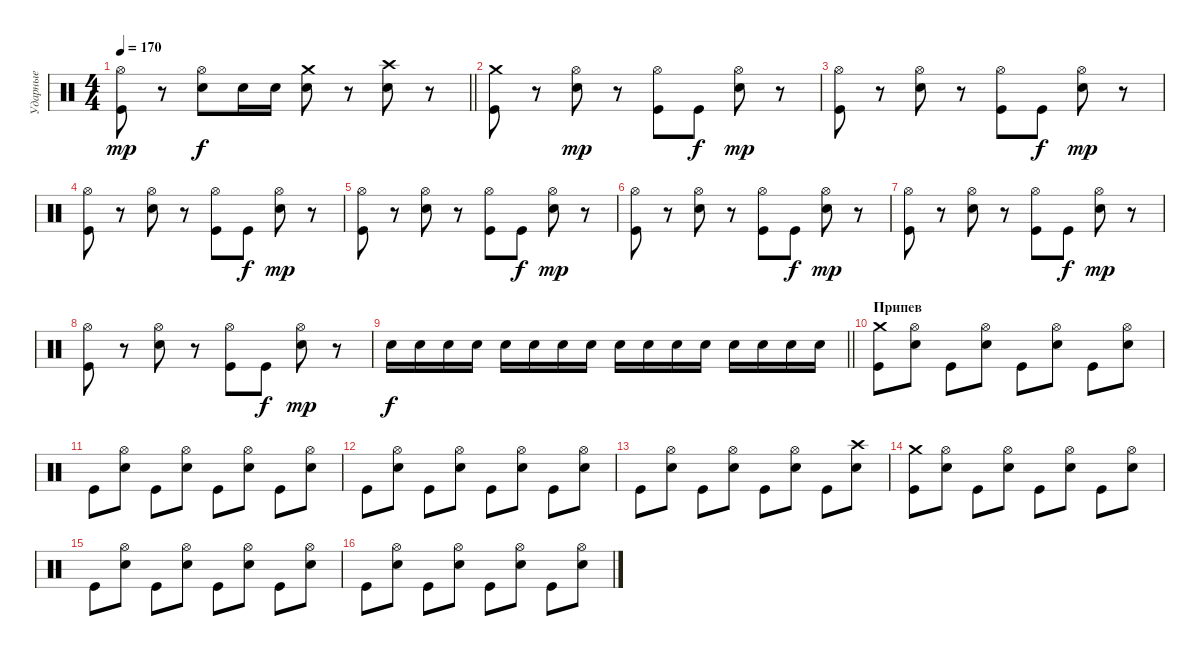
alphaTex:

\track ("Ударные" "Ударные") {instrument percussion}
\staff {score}
\articulation defaults
\ts (4 4)
\tempo 170
\clef neutral
\barLineRight lightlight
\ks c
("Hi-Hat (open)" "Kick (hit)").8{dy mp} r.8 ("Hi-Hat (open)" "Electric Snare (hit)").8{dy f} "Electric Snare (hit)".16 "Electric Snare (hit)".16 ("Crash medium (hit)" "Electric Snare (hit)").8 r.8 ("Crash high (hit)" "Electric Snare (hit)").8 r.8 |
\section ("" " ")
("Crash medium (hit)" "Kick (hit)").8 r.8 ("Hi-Hat (open)" "Electric Snare (hit)").8{dy mp} r.8 ("Hi-Hat (open)" "Kick (hit)").8 "Kick (hit)".8{dy f} ("Hi-Hat (open)" "Electric Snare (hit)").8{dy mp} r.8 |
("Hi-Hat (open)" "Kick (hit)").8 r.8 ("Hi-Hat (open)" "Electric Snare (hit)").8 r.8 ("Hi-Hat (open)" "Kick (hit)").8 "Kick (hit)".8{dy f} ("Hi-Hat (open)" "Electric Snare (hit)").8{dy mp} r.8 |
("Hi-Hat (open)" "Kick (hit)").8 r.8 ("Hi-Hat (open)" "Electric Snare (hit)").8 r.8 ("Hi-Hat (open)" "Kick (hit)").8 "Kick (hit)".8{dy f} ("Hi-Hat (open)" "Electric Snare (hit)").8{dy mp} r.8 |
("Hi-Hat (open)" "Kick (hit)").8 r.8 ("Hi-Hat (open)" "Electric Snare (hit)").8 r.8 ("Hi-Hat (open)" "Kick (hit)").8 "Kick (hit)".8{dy f} ("Hi-Hat (open)" "Electric Snare (hit)").8{dy mp} r.8 |
("Hi-Hat (open)" "Kick (hit)").8 r.8 ("Hi-Hat (open)" "Electric Snare (hit)").8 r.8 ("Hi-Hat (open)" "Kick (hit)").8 "Kick (hit)".8{dy f} ("Hi-Hat (open)" "Electric Snare (hit)").8{dy mp} r.8 |
("Hi-Hat (open)" "Kick (hit)").8 r.8 ("Hi-Hat (open)" "Electric Snare (hit)").8 r.8 ("Hi-Hat (open)" "Kick (hit)").8 "Kick (hit)".8{dy f} ("Hi-Hat (open)" "Electric Snare (hit)").8{dy mp} r.8 |
("Hi-Hat (open)" "Kick (hit)").8 r.8 ("Hi-Hat (open)" "Electric Snare (hit)").8 r.8 ("Hi-Hat (open)" "Kick (hit)").8 "Kick (hit)".8{dy f} ("Hi-Hat (open)" "Electric Snare (hit)").8{dy mp} r.8 |
\barLineRight lightlight "Electric Snare (hit)".16{dy f} "Electric Snare (hit)".16 "Electric Snare (hit)".16 "Electric Snare (hit)".16 "Electric Snare (hit)".16 "Electric Snare (hit)".16 "Electric Snare (hit)".16 "Electric Snare (hit)".16 "Electric Snare (hit)".16 "Electric Snare (hit)".16 "Electric Snare (hit)".16 "Electric Snare (hit)".16 "Electric Snare (hit)".16 "Electric Snare (hit)".16 "Electric Snare (hit)".16 "Electric Snare (hit)".16
|
\section ("" "Припев")
("Crash medium (hit)" "Kick (hit)").8 ("Hi-Hat (open)" "Electric Snare (hit)").8 "Kick (hit)".8 ("Hi-Hat (open)" "Electric Snare (hit)").8 "Kick (hit)".8 ("Hi-Hat (open)" "Electric Snare (hit)").8 "Kick (hit)".8 ("Hi-Hat (open)" "Electric Snare (hit)").8 |
"Kick (hit)".8 ("Hi-Hat (open)" "Electric Snare (hit)").8 "Kick (hit)".8 ("Hi-Hat (open)" "Electric Snare (hit)").8 "Kick (hit)".8 ("Hi-Hat (open)" "Electric Snare (hit)").8 "Kick (hit)".8 ("Hi-Hat (open)" "Electric Snare (hit)").8 |
"Kick (hit)".8 ("Hi-Hat (open)" "Electric Snare (hit)").8 "Kick (hit)".8 ("Hi-Hat (open)" "Electric Snare (hit)").8 "Kick (hit)".8 ("Hi-Hat (open)" "Electric Snare (hit)").8 "Kick (hit)".8 ("Hi-Hat (open)" "Electric Snare (hit)").8 |
"Kick (hit)".8 ("Hi-Hat (open)" "Electric Snare (hit)").8 "Kick (hit)".8 ("Hi-Hat (open)" "Electric Snare (hit)").8 "Kick (hit)".8 ("Hi-Hat (open)" "Electric Snare (hit)").8 "Kick (hit)".8 ("Crash high (hit)" "Electric Snare (hit)").8 |
("Crash medium (hit)" "Kick (hit)").8 ("Hi-Hat (open)" "Electric Snare (hit)").8 "Kick (hit)".8 ("Hi-Hat (open)" "Electric Snare (hit)").8 "Kick (hit)".8 ("Hi-Hat (open)" "Electric Snare (hit)").8 "Kick (hit)".8 ("Hi-Hat (open)" "Electric Snare (hit)").8 |
"Kick (hit)".8 ("Hi-Hat (open)" "Electric Snare (hit)").8 "Kick (hit)".8 ("Hi-Hat (open)" "Electric Snare (hit)").8 "Kick (hit)".8 ("Hi-Hat (open)" "Electric Snare (hit)").8 "Kick (hit)".8 ("Hi-Hat (open)" "Electric Snare (hit)").8 |
"Kick (hit)".8 ("Hi-Hat (open)" "Electric Snare (hit)").8 "Kick (hit)".8 ("Hi-Hat (open)" "Electric Snare (hit)").8 "Kick (hit)".8 ("Hi-Hat (open)" "Electric Snare (hit)").8 "Kick (hit)".8 ("Hi-Hat (open)" "Electric Snare (hit)").8
